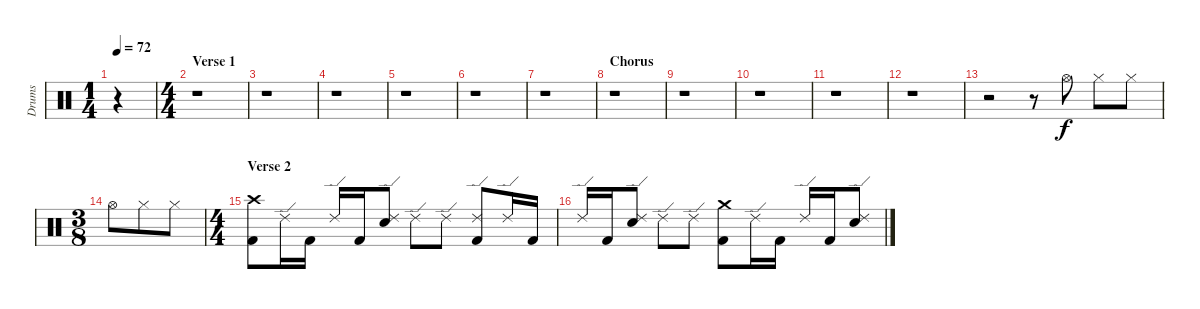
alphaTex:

\track ("Drums" "Drums") {instrument percussion}
\staff {score}
\articulation defaults
\ts (1 4)
\tempo 72
\clef neutral
\ks c
r.4{dy f} |
\ts (4 4)
\section ("" "Verse 1")
r.1 |
r.1 |
r.1 |
r.1 |
r.1 |
r.1 |
\section ("" "Chorus")
r.1 |
r.1 |
r.1 |
r.1 |
r.1 |
r.2 r.8 "Hi-Hat (open)".8 "Hi-Hat (closed)".8 "Hi-Hat (closed)".8 |
\ts (3 8)
"Hi-Hat (open)".8 "Hi-Hat (closed)".8 "Hi-Hat (closed)".8 |
\ts (4 4)
\section ("" "Verse 2")
("Crash high (hit)" "Kick (hit) 2").8 "Ride (edge) 2".16 "Kick (hit) 2".16 "Ride (edge) 2".16 "Kick (hit) 2".16 ("Ride (edge) 2" "Electric Snare (hit)").8 "Ride (edge) 2".8 "Ride (edge) 2".8 ("Ride (edge) 2" "Kick (hit) 2").8 "Ride (edge) 2".16 "Kick (hit) 2".16 |
"Ride (edge) 2".16 "Kick (hit) 2".16 ("Ride (edge) 2" "Electric Snare (hit)").8 "Ride (edge) 2".8 "Ride (edge) 2".8 ("Crash medium (hit)" "Kick (hit) 2").8 "Ride (edge) 2".16 "Kick (hit) 2".16 "Ride (edge) 2".16 "Kick (hit) 2".16 ("Ride (edge) 2" "Electric Snare (hit)").8
